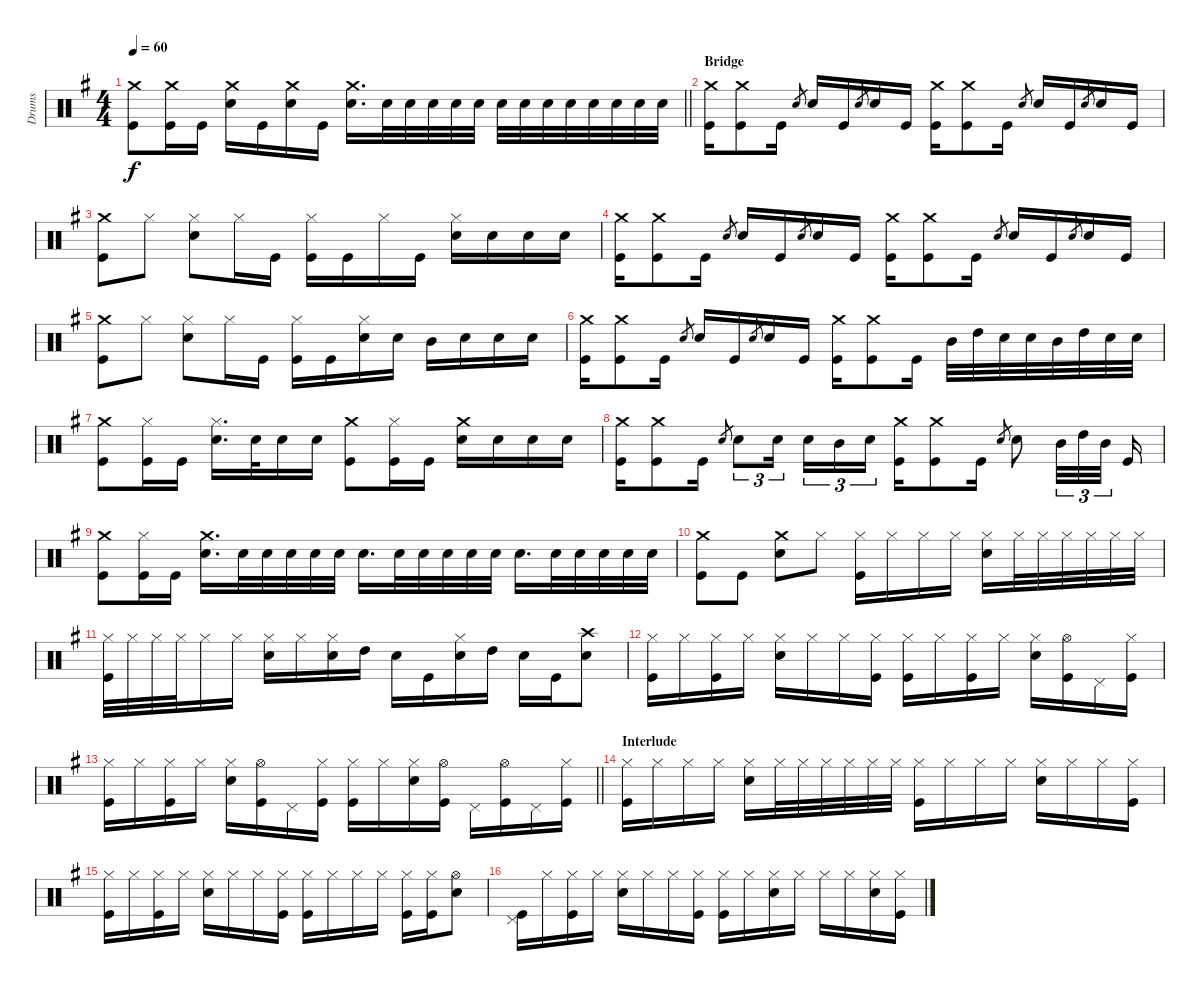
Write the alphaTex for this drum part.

\track ("Drums" "Drums") {instrument percussion}
\staff {score}
\articulation defaults
\ts (4 4)
\tempo 60
\clef neutral
\barLineRight lightlight
\ks g
("Kick (hit)" "Crash medium (hit)").8{dy f} ("Kick (hit)" "Crash medium (hit)").16 "Kick (hit)".16 ("Electric Snare (hit)" "Crash medium (hit)").16 "Kick (hit)".16 ("Electric Snare (hit)" "Crash medium (hit)").16 "Kick (hit)".16 ("Electric Snare (hit)" "Crash medium (hit)").16{d} "Electric Snare (hit)".32 "Electric Snare (hit)".32 "Electric Snare (hit)".32 "Electric Snare (hit)".32 "Electric Snare (hit)".32 "Electric Snare (hit)".32 "Electric Snare (hit)".32 "Electric Snare (hit)".32 "Electric Snare (hit)".32 "Electric Snare (hit)".32 "Electric Snare (hit)".32 "Electric Snare (hit)".32 "Electric Snare (hit)".32 |
\section ("" "Bridge")
("Kick (hit)" "Crash medium (hit)").16 ("Kick (hit)" "Crash medium (hit)").8 "Kick (hit)".16 "Electric Snare (hit)".8{gr} "Electric Snare (hit)".16 "Kick (hit)".16 "Electric Snare (hit)".8{gr} "Electric Snare (hit)".16 "Kick (hit)".16 ("Kick (hit)" "Crash medium (hit)").16 ("Kick (hit)" "Crash medium (hit)").8 "Kick (hit)".16 "Electric Snare (hit)".8{gr} "Electric Snare (hit)".16 "Kick (hit)".16 "Electric Snare (hit)".8{gr} "Electric Snare (hit)".16 "Kick (hit)".16 |
("Kick (hit)" "Crash medium (hit)").8 "Hi-Hat (closed)".8 ("Electric Snare (hit)" "Hi-Hat (closed)").8 "Hi-Hat (closed)".16 "Kick (hit)".16 ("Kick (hit)" "Hi-Hat (closed)").16 "Kick (hit)".16 "Hi-Hat (closed)".16 "Kick (hit)".16 ("Electric Snare (hit)" "Hi-Hat (closed)").16 "Electric Snare (hit)".16 "Electric Snare (hit)".16 "Electric Snare (hit)".16 |
("Kick (hit)" "Crash medium (hit)").16 ("Kick (hit)" "Crash medium (hit)").8 "Kick (hit)".16 "Electric Snare (hit)".8{gr} "Electric Snare (hit)".16 "Kick (hit)".16 "Electric Snare (hit)".8{gr} "Electric Snare (hit)".16 "Kick (hit)".16 ("Kick (hit)" "Crash medium (hit)").16 ("Kick (hit)" "Crash medium (hit)").8 "Kick (hit)".16 "Electric Snare (hit)".8{gr} "Electric Snare (hit)".16 "Kick (hit)".16 "Electric Snare (hit)".8{gr} "Electric Snare (hit)".16 "Kick (hit)".16 |
("Kick (hit)" "Crash medium (hit)").8 "Hi-Hat (closed)".8 ("Electric Snare (hit)" "Hi-Hat (closed)").8 "Hi-Hat (closed)".16 "Kick (hit)".16 ("Kick (hit)" "Hi-Hat (closed)").16 "Kick (hit)".16 ("Electric Snare (hit)" "Hi-Hat (closed)").16 "Electric Snare (hit)".16 "Mid Tom (hit)".16 "Electric Snare (hit)".16 "Electric Snare (hit)".16 "Electric Snare (hit)".16 |
("Kick (hit)" "Crash medium (hit)").16 ("Kick (hit)" "Crash medium (hit)").8 "Kick (hit)".16 "Electric Snare (hit)".8{gr} "Electric Snare (hit)".16 "Kick (hit)".16 "Electric Snare (hit)".8{gr} "Electric Snare (hit)".16 "Kick (hit)".16 ("Kick (hit)" "Crash medium (hit)").16 ("Kick (hit)" "Crash medium (hit)").8 "Kick (hit)".16 "Mid Tom (hit)".32 "High Tom (hit)".32 "Electric Snare (hit)".32 "Electric Snare (hit)".32 "Mid Tom (hit)".32 "High Tom (hit)".32 "Electric Snare (hit)".32 "Electric Snare (hit)".32 |
("Kick (hit)" "Crash medium (hit)").8 ("Kick (hit)" "Hi-Hat (closed)").16 "Kick (hit)".16 ("Electric Snare (hit)" "Hi-Hat (closed)").16{d} "Electric Snare (hit)".32 "Electric Snare (hit)".16 "Electric Snare (hit)".16 ("Kick (hit)" "Crash medium (hit)").8 ("Kick (hit)" "Hi-Hat (closed)").16 "Kick (hit)".16 ("Electric Snare (hit)" "Crash medium (hit)").16 "Electric Snare (hit)".16 "Electric Snare (hit)".16 "Electric Snare (hit)".16 |
("Kick (hit)" "Crash medium (hit)").16 ("Kick (hit)" "Crash medium (hit)").8 "Kick (hit)".16 "Electric Snare (hit)".8{gr} "Electric Snare (hit)".8{tu (3 2)} "Electric Snare (hit)".16{tu (3 2) beam splitsecondary} "Electric Snare (hit)".16{tu (3 2)} "Mid Tom (hit)".16{tu (3 2)} "Electric Snare (hit)".16{tu (3 2)} ("Kick (hit)" "Crash medium (hit)").16 ("Kick (hit)" "Crash medium (hit)").8 "Kick (hit)".16 "Electric Snare (hit)".8{gr} "Electric Snare (hit)".8 "Mid Tom (hit)".32{tu (3 2)} "High Tom (hit)".32{tu (3 2)} "Mid Tom (hit)".32{tu (3 2) beam splitsecondary} "Kick (hit)".16 |
("Kick (hit)" "Crash medium (hit)").8 ("Kick (hit)" "Hi-Hat (closed)").16 "Kick (hit)".16 ("Electric Snare (hit)" "Crash medium (hit)").16{d} "Electric Snare (hit)".32 "Electric Snare (hit)".32 "Electric Snare (hit)".32 "Electric Snare (hit)".32 "Electric Snare (hit)".32 "Electric Snare (hit)".16{d} "Electric Snare (hit)".32 "Electric Snare (hit)".32 "Electric Snare (hit)".32 "Electric Snare (hit)".32 "Electric Snare (hit)".32 "Electric Snare (hit)".16{d} "Electric Snare (hit)".32 "Electric Snare (hit)".32 "Electric Snare (hit)".32 "Electric Snare (hit)".32 "Electric Snare (hit)".32 |
("Kick (hit)" "Crash medium (hit)").8 "Kick (hit)".8 ("Electric Snare (hit)" "Crash medium (hit)").8 "Hi-Hat (closed)".8 ("Kick (hit)" "Hi-Hat (closed)").16 "Hi-Hat (closed)".16 "Hi-Hat (closed)".16 "Hi-Hat (closed)".16 ("Electric Snare (hit)" "Hi-Hat (closed)").16 "Hi-Hat (closed)".32 "Hi-Hat (closed)".32 "Hi-Hat (closed)".32 "Hi-Hat (closed)".32 "Hi-Hat (closed)".32 "Hi-Hat (closed)".32 |
("Kick (hit)" "Hi-Hat (closed)").32 "Hi-Hat (closed)".32 "Hi-Hat (closed)".32 "Hi-Hat (closed)".32 "Hi-Hat (closed)".16 "Hi-Hat (closed)".16 ("Electric Snare (hit)" "Hi-Hat (closed)").16 "Hi-Hat (closed)".16 ("Electric Snare (hit)" "Hi-Hat (closed)").16 "High Tom (hit)".16 "Electric Snare (hit)".16 "Kick (hit)".16 ("Electric Snare (hit)" "Hi-Hat (closed)").16 "High Tom (hit)".16 "Electric Snare (hit)".16 "Kick (hit)".16 ("Electric Snare (hit)" "Crash high (hit)").8 |
("Kick (hit)" "Hi-Hat (closed)").16 "Hi-Hat (closed)".16 ("Kick (hit)" "Hi-Hat (closed)").16 "Hi-Hat (closed)".16 ("Electric Snare (hit)" "Hi-Hat (closed)").16 "Hi-Hat (closed)".16 "Hi-Hat (closed)".16 ("Kick (hit)" "Hi-Hat (closed)").16 ("Kick (hit)" "Hi-Hat (closed)").16 "Hi-Hat (closed)".16 ("Kick (hit)" "Hi-Hat (closed)").16 "Hi-Hat (closed)".16 ("Electric Snare (hit)" "Hi-Hat (closed)").16 ("Kick (hit)" "Hi-Hat (open)").16 "Pedal Hi-Hat (hit)".16 ("Kick (hit)" "Hi-Hat (closed)").16 |
\barLineRight lightlight
("Kick (hit)" "Hi-Hat (closed)").16 "Hi-Hat (closed)".16 ("Kick (hit)" "Hi-Hat (closed)").16 "Hi-Hat (closed)".16 ("Electric Snare (hit)" "Hi-Hat (closed)").16 ("Kick (hit)" "Hi-Hat (open)").16 "Pedal Hi-Hat (hit)".16 ("Kick (hit)" "Hi-Hat (closed)").16 ("Kick (hit)" "Hi-Hat (closed)").16 "Hi-Hat (closed)".16 ("Electric Snare (hit)" "Hi-Hat (closed)").16 ("Kick (hit)" "Hi-Hat (open)").16 "Pedal Hi-Hat (hit)".16 ("Kick (hit)" "Hi-Hat (open)").16 "Pedal Hi-Hat (hit)".16 ("Kick (hit)" "Hi-Hat (closed)").16 |
\section ("" "Interlude")
("Kick (hit)" "Hi-Hat (closed)").16 "Hi-Hat (closed)".16 "Hi-Hat (closed)".16 "Hi-Hat (closed)".16 ("Electric Snare (hit)" "Hi-Hat (closed)").16 "Hi-Hat (closed)".32 "Hi-Hat (closed)".32 "Hi-Hat (closed)".32 "Hi-Hat (closed)".32 "Hi-Hat (closed)".32 "Hi-Hat (closed)".32 ("Kick (hit)" "Hi-Hat (closed)").16 "Hi-Hat (closed)".16 "Hi-Hat (closed)".16 "Hi-Hat (closed)".16 ("Electric Snare (hit)" "Hi-Hat (closed)").16 "Hi-Hat (closed)".16 "Hi-Hat (closed)".16 ("Kick (hit)" "Hi-Hat (closed)").16 |
("Kick (hit)" "Hi-Hat (closed)").16 "Hi-Hat (closed)".16 ("Kick (hit)" "Hi-Hat (closed)").16 "Hi-Hat (closed)".16 ("Electric Snare (hit)" "Hi-Hat (closed)").16 "Hi-Hat (closed)".16 "Hi-Hat (closed)".16 ("Kick (hit)" "Hi-Hat (closed)").16 ("Kick (hit)" "Hi-Hat (closed)").16 "Hi-Hat (closed)".16 "Hi-Hat (closed)".16 "Hi-Hat (closed)".16 ("Kick (hit)" "Hi-Hat (closed)").16 ("Kick (hit)" "Hi-Hat (closed)").16 ("Electric Snare (hit)" "Hi-Hat (open)").8 |
("Kick (hit)" "Pedal Hi-Hat (hit)").16 "Hi-Hat (closed)".16 ("Kick (hit)" "Hi-Hat (closed)").16 "Hi-Hat (closed)".16 ("Electric Snare (hit)" "Hi-Hat (closed)").16 "Hi-Hat (closed)".16 "Hi-Hat (closed)".16 ("Kick (hit)" "Hi-Hat (closed)").16 ("Kick (hit)" "Hi-Hat (closed)").16 "Hi-Hat (closed)".16 ("Electric Snare (hit)" "Hi-Hat (closed)").16 "Hi-Hat (closed)".16 "Hi-Hat (closed)".16 "Hi-Hat (closed)".16 ("Electric Snare (hit)" "Hi-Hat (closed)").16 ("Kick (hit)" "Hi-Hat (closed)").16
